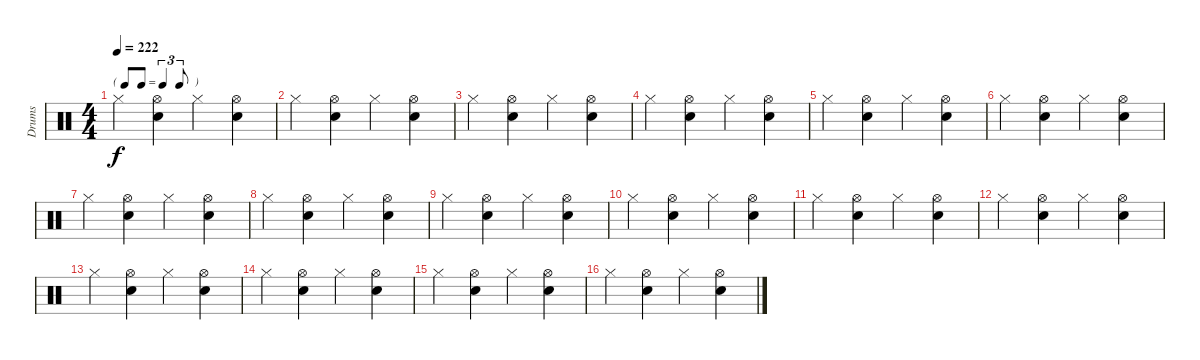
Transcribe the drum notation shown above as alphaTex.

\track ("Drums" "Drums") {instrument percussion}
\staff {score}
\articulation defaults
\ts (4 4)
\tf triplet8th
\tempo 222
\clef neutral
\ks c "Hi-Hat (closed)".4{dy f}
("Snare (hit) 2" "Hi-Hat (open)").4 "Hi-Hat (closed)".4 ("Snare (hit) 2" "Hi-Hat (open)").4 |
"Hi-Hat (closed)".4 ("Snare (hit) 2" "Hi-Hat (open)").4 "Hi-Hat (closed)".4 ("Snare (hit) 2" "Hi-Hat (open)").4 |
"Hi-Hat (closed)".4 ("Snare (hit) 2" "Hi-Hat (open)").4 "Hi-Hat (closed)".4 ("Snare (hit) 2" "Hi-Hat (open)").4 |
"Hi-Hat (closed)".4 ("Snare (hit) 2" "Hi-Hat (open)").4 "Hi-Hat (closed)".4 ("Snare (hit) 2" "Hi-Hat (open)").4 |
"Hi-Hat (closed)".4 ("Snare (hit) 2" "Hi-Hat (open)").4 "Hi-Hat (closed)".4 ("Snare (hit) 2" "Hi-Hat (open)").4 |
"Hi-Hat (closed)".4 ("Snare (hit) 2" "Hi-Hat (open)").4 "Hi-Hat (closed)".4 ("Snare (hit) 2" "Hi-Hat (open)").4 |
"Hi-Hat (closed)".4 ("Snare (hit) 2" "Hi-Hat (open)").4 "Hi-Hat (closed)".4 ("Snare (hit) 2" "Hi-Hat (open)").4 |
"Hi-Hat (closed)".4 ("Snare (hit) 2" "Hi-Hat (open)").4 "Hi-Hat (closed)".4 ("Snare (hit) 2" "Hi-Hat (open)").4 |
"Hi-Hat (closed)".4 ("Snare (hit) 2" "Hi-Hat (open)").4 "Hi-Hat (closed)".4 ("Snare (hit) 2" "Hi-Hat (open)").4 |
"Hi-Hat (closed)".4 ("Snare (hit) 2" "Hi-Hat (open)").4 "Hi-Hat (closed)".4 ("Snare (hit) 2" "Hi-Hat (open)").4 |
"Hi-Hat (closed)".4 ("Snare (hit) 2" "Hi-Hat (open)").4 "Hi-Hat (closed)".4 ("Snare (hit) 2" "Hi-Hat (open)").4 |
"Hi-Hat (closed)".4 ("Snare (hit) 2" "Hi-Hat (open)").4 "Hi-Hat (closed)".4 ("Snare (hit) 2" "Hi-Hat (open)").4 |
"Hi-Hat (closed)".4 ("Snare (hit) 2" "Hi-Hat (open)").4 "Hi-Hat (closed)".4 ("Snare (hit) 2" "Hi-Hat (open)").4 |
"Hi-Hat (closed)".4 ("Snare (hit) 2" "Hi-Hat (open)").4 "Hi-Hat (closed)".4 ("Snare (hit) 2" "Hi-Hat (open)").4 |
"Hi-Hat (closed)".4 ("Snare (hit) 2" "Hi-Hat (open)").4 "Hi-Hat (closed)".4 ("Snare (hit) 2" "Hi-Hat (open)").4 |
"Hi-Hat (closed)".4 ("Snare (hit) 2" "Hi-Hat (open)").4 "Hi-Hat (closed)".4 ("Snare (hit) 2" "Hi-Hat (open)").4
